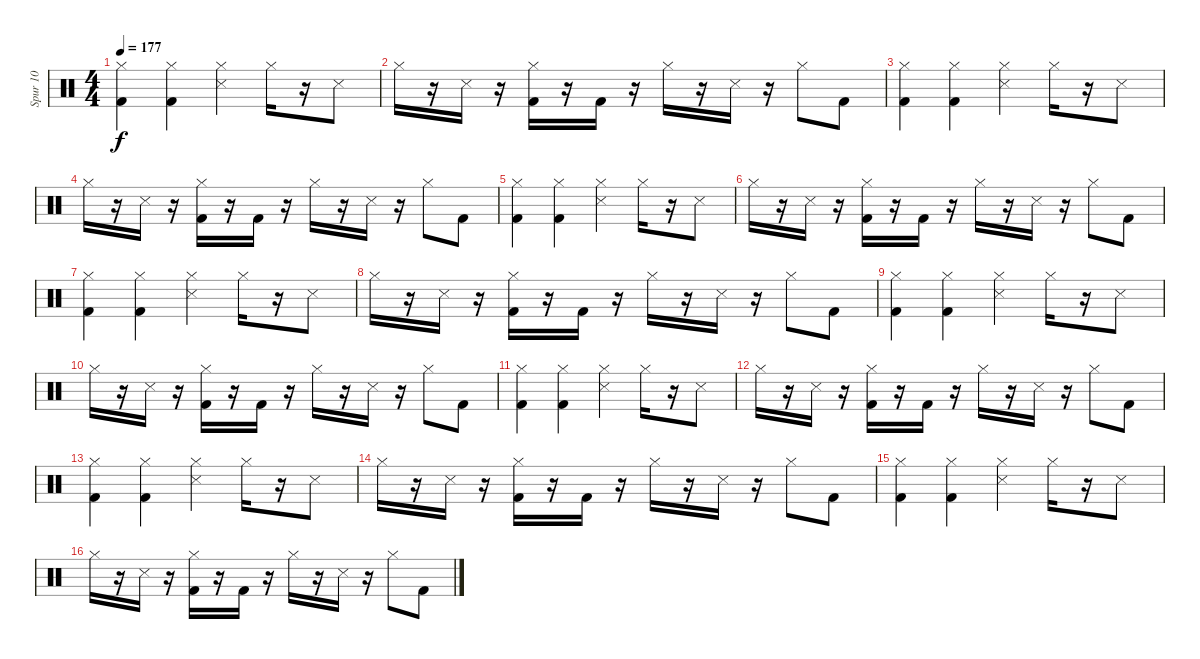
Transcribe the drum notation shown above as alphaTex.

\track ("Spur 10" "Spur 10") {instrument percussion}
\staff {score}
\articulation defaults
\ts (4 4)
\tempo 177
\clef neutral
\ks c
("Hi-Hat (closed)" "Kick (hit) 2").4{dy f} ("Hi-Hat (closed)" "Kick (hit) 2").4 ("Hi-Hat (closed)" "Metronome (hit)").4 "Hi-Hat (closed)".16 r.16 "Metronome (hit)".8 |
"Hi-Hat (closed)".16 r.16 "Metronome (hit)".16 r.16 ("Kick (hit) 2" "Hi-Hat (closed)").16 r.16 "Kick (hit) 2".16 r.16 "Hi-Hat (closed)".16 r.16 "Metronome (hit)".16 r.16 "Hi-Hat (closed)".8 "Kick (hit) 2".8 |
("Hi-Hat (closed)" "Kick (hit) 2").4 ("Hi-Hat (closed)" "Kick (hit) 2").4 ("Hi-Hat (closed)" "Metronome (hit)").4 "Hi-Hat (closed)".16 r.16 "Metronome (hit)".8 |
"Hi-Hat (closed)".16 r.16 "Metronome (hit)".16 r.16 ("Kick (hit) 2" "Hi-Hat (closed)").16 r.16 "Kick (hit) 2".16 r.16 "Hi-Hat (closed)".16 r.16 "Metronome (hit)".16 r.16 "Hi-Hat (closed)".8 "Kick (hit) 2".8 |
("Hi-Hat (closed)" "Kick (hit) 2").4 ("Hi-Hat (closed)" "Kick (hit) 2").4 ("Hi-Hat (closed)" "Metronome (hit)").4 "Hi-Hat (closed)".16 r.16 "Metronome (hit)".8 |
"Hi-Hat (closed)".16 r.16 "Metronome (hit)".16 r.16 ("Kick (hit) 2" "Hi-Hat (closed)").16 r.16 "Kick (hit) 2".16 r.16 "Hi-Hat (closed)".16 r.16 "Metronome (hit)".16 r.16 "Hi-Hat (closed)".8 "Kick (hit) 2".8 |
("Hi-Hat (closed)" "Kick (hit) 2").4 ("Hi-Hat (closed)" "Kick (hit) 2").4 ("Hi-Hat (closed)" "Metronome (hit)").4 "Hi-Hat (closed)".16 r.16 "Metronome (hit)".8 |
"Hi-Hat (closed)".16 r.16 "Metronome (hit)".16 r.16 ("Kick (hit) 2" "Hi-Hat (closed)").16 r.16 "Kick (hit) 2".16 r.16 "Hi-Hat (closed)".16 r.16 "Metronome (hit)".16 r.16 "Hi-Hat (closed)".8 "Kick (hit) 2".8 |
("Hi-Hat (closed)" "Kick (hit) 2").4 ("Hi-Hat (closed)" "Kick (hit) 2").4 ("Hi-Hat (closed)" "Metronome (hit)").4 "Hi-Hat (closed)".16 r.16 "Metronome (hit)".8 |
"Hi-Hat (closed)".16 r.16 "Metronome (hit)".16 r.16 ("Kick (hit) 2" "Hi-Hat (closed)").16 r.16 "Kick (hit) 2".16 r.16 "Hi-Hat (closed)".16 r.16 "Metronome (hit)".16 r.16 "Hi-Hat (closed)".8 "Kick (hit) 2".8 |
("Hi-Hat (closed)" "Kick (hit) 2").4 ("Hi-Hat (closed)" "Kick (hit) 2").4 ("Hi-Hat (closed)" "Metronome (hit)").4 "Hi-Hat (closed)".16 r.16 "Metronome (hit)".8 |
"Hi-Hat (closed)".16 r.16 "Metronome (hit)".16 r.16 ("Kick (hit) 2" "Hi-Hat (closed)").16 r.16 "Kick (hit) 2".16 r.16 "Hi-Hat (closed)".16 r.16 "Metronome (hit)".16 r.16 "Hi-Hat (closed)".8 "Kick (hit) 2".8 |
("Hi-Hat (closed)" "Kick (hit) 2").4 ("Hi-Hat (closed)" "Kick (hit) 2").4 ("Hi-Hat (closed)" "Metronome (hit)").4 "Hi-Hat (closed)".16 r.16 "Metronome (hit)".8 |
"Hi-Hat (closed)".16 r.16 "Metronome (hit)".16 r.16 ("Kick (hit) 2" "Hi-Hat (closed)").16 r.16 "Kick (hit) 2".16 r.16 "Hi-Hat (closed)".16 r.16 "Metronome (hit)".16 r.16 "Hi-Hat (closed)".8 "Kick (hit) 2".8 |
("Hi-Hat (closed)" "Kick (hit) 2").4 ("Hi-Hat (closed)" "Kick (hit) 2").4 ("Hi-Hat (closed)" "Metronome (hit)").4 "Hi-Hat (closed)".16 r.16 "Metronome (hit)".8 |
"Hi-Hat (closed)".16 r.16 "Metronome (hit)".16 r.16 ("Kick (hit) 2" "Hi-Hat (closed)").16 r.16 "Kick (hit) 2".16 r.16 "Hi-Hat (closed)".16 r.16 "Metronome (hit)".16 r.16 "Hi-Hat (closed)".8 "Kick (hit) 2".8
